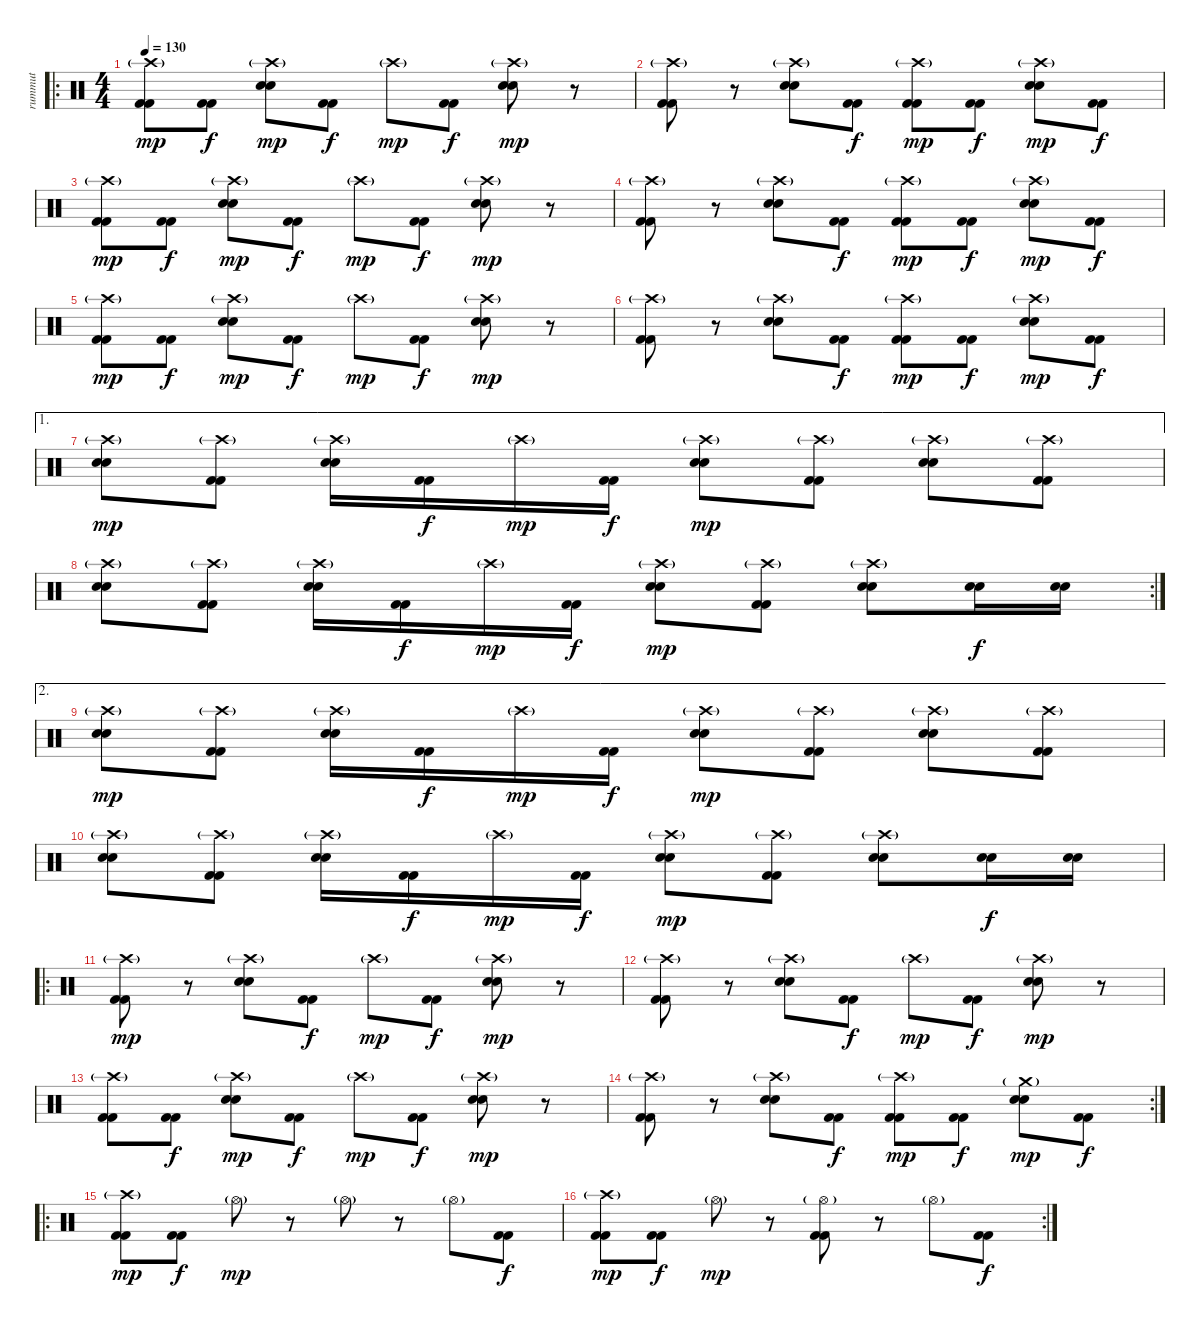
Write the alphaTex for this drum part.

\track ("rummut" "rummut") {instrument percussion}
\staff {score}
\articulation defaults
\ro
\ts (4 4)
\tempo 130
\clef neutral
\ks c
("Crash high (hit)"{g} "Kick (hit) 2" "Kick (hit) 2").8{dy mp} ("Kick (hit) 2" "Kick (hit) 2").8{dy f} ("Crash high (hit)"{g} "Electric Snare (hit)" "Electric Snare (hit)").8{dy mp} ("Kick (hit) 2" "Kick (hit) 2").8{dy f} "Crash high (hit)"{g}.8{dy mp} ("Kick (hit) 2" "Kick (hit) 2").8{dy f} ("Crash high (hit)"{g} "Electric Snare (hit)" "Electric Snare (hit)").8{dy mp} r.8 |
("Crash high (hit)"{g} "Kick (hit) 2" "Kick (hit) 2").8 r.8 ("Crash high (hit)"{g} "Electric Snare (hit)" "Electric Snare (hit)").8 ("Kick (hit) 2" "Kick (hit) 2").8{dy f} ("Crash high (hit)"{g} "Kick (hit) 2" "Kick (hit) 2").8{dy mp} ("Kick (hit) 2" "Kick (hit) 2").8{dy f} ("Crash high (hit)"{g} "Electric Snare (hit)" "Electric Snare (hit)").8{dy mp} ("Kick (hit) 2" "Kick (hit) 2").8{dy f} |
("Crash high (hit)"{g} "Kick (hit) 2" "Kick (hit) 2").8{dy mp} ("Kick (hit) 2" "Kick (hit) 2").8{dy f} ("Crash high (hit)"{g} "Electric Snare (hit)" "Electric Snare (hit)").8{dy mp} ("Kick (hit) 2" "Kick (hit) 2").8{dy f} "Crash high (hit)"{g}.8{dy mp} ("Kick (hit) 2" "Kick (hit) 2").8{dy f} ("Crash high (hit)"{g} "Electric Snare (hit)" "Electric Snare (hit)").8{dy mp} r.8 |
("Crash high (hit)"{g} "Kick (hit) 2" "Kick (hit) 2").8 r.8 ("Crash high (hit)"{g} "Electric Snare (hit)" "Electric Snare (hit)").8 ("Kick (hit) 2" "Kick (hit) 2").8{dy f} ("Crash high (hit)"{g} "Kick (hit) 2" "Kick (hit) 2").8{dy mp} ("Kick (hit) 2" "Kick (hit) 2").8{dy f} ("Crash high (hit)"{g} "Electric Snare (hit)" "Electric Snare (hit)").8{dy mp} ("Kick (hit) 2" "Kick (hit) 2").8{dy f} |
("Crash high (hit)"{g} "Kick (hit) 2" "Kick (hit) 2").8{dy mp} ("Kick (hit) 2" "Kick (hit) 2").8{dy f} ("Crash high (hit)"{g} "Electric Snare (hit)" "Electric Snare (hit)").8{dy mp} ("Kick (hit) 2" "Kick (hit) 2").8{dy f} "Crash high (hit)"{g}.8{dy mp} ("Kick (hit) 2" "Kick (hit) 2").8{dy f} ("Crash high (hit)"{g} "Electric Snare (hit)" "Electric Snare (hit)").8{dy mp} r.8 |
("Crash high (hit)"{g} "Kick (hit) 2" "Kick (hit) 2").8 r.8 ("Crash high (hit)"{g} "Electric Snare (hit)" "Electric Snare (hit)").8 ("Kick (hit) 2" "Kick (hit) 2").8{dy f} ("Crash high (hit)"{g} "Kick (hit) 2" "Kick (hit) 2").8{dy mp} ("Kick (hit) 2" "Kick (hit) 2").8{dy f} ("Crash high (hit)"{g} "Electric Snare (hit)" "Electric Snare (hit)").8{dy mp} ("Kick (hit) 2" "Kick (hit) 2").8{dy f} |
\ae 1
("Crash high (hit)"{g} "Electric Snare (hit)" "Electric Snare (hit)").8{dy mp} ("Crash high (hit)"{g} "Kick (hit) 2" "Kick (hit) 2").8 ("Crash high (hit)"{g} "Electric Snare (hit)" "Electric Snare (hit)").16 ("Kick (hit) 2" "Kick (hit) 2").16{dy f} "Crash high (hit)"{g}.16{dy mp} ("Kick (hit) 2" "Kick (hit) 2").16{dy f} ("Crash high (hit)"{g} "Electric Snare (hit)" "Electric Snare (hit)").8{dy mp} ("Crash high (hit)"{g} "Kick (hit) 2" "Kick (hit) 2").8 ("Crash high (hit)"{g} "Electric Snare (hit)" "Electric Snare (hit)").8 ("Crash high (hit)"{g} "Kick (hit) 2" "Kick (hit) 2").8 |
\rc 2
("Crash high (hit)"{g} "Electric Snare (hit)" "Electric Snare (hit)").8 ("Crash high (hit)"{g} "Kick (hit) 2" "Kick (hit) 2").8 ("Crash high (hit)"{g} "Electric Snare (hit)" "Electric Snare (hit)").16 ("Kick (hit) 2" "Kick (hit) 2").16{dy f} "Crash high (hit)"{g}.16{dy mp} ("Kick (hit) 2" "Kick (hit) 2").16{dy f} ("Crash high (hit)"{g} "Electric Snare (hit)" "Electric Snare (hit)").8{dy mp} ("Crash high (hit)"{g} "Kick (hit) 2" "Kick (hit) 2").8 ("Crash high (hit)"{g} "Electric Snare (hit)" "Electric Snare (hit)").8 ("Electric Snare (hit)" "Electric Snare (hit)").16{dy f} ("Electric Snare (hit)" "Electric Snare (hit)").16 |
\ae 2
("Crash high (hit)"{g} "Electric Snare (hit)" "Electric Snare (hit)").8{dy mp} ("Crash high (hit)"{g} "Kick (hit) 2" "Kick (hit) 2").8 ("Crash high (hit)"{g} "Electric Snare (hit)" "Electric Snare (hit)").16 ("Kick (hit) 2" "Kick (hit) 2").16{dy f} "Crash high (hit)"{g}.16{dy mp} ("Kick (hit) 2" "Kick (hit) 2").16{dy f} ("Crash high (hit)"{g} "Electric Snare (hit)" "Electric Snare (hit)").8{dy mp} ("Crash high (hit)"{g} "Kick (hit) 2" "Kick (hit) 2").8 ("Crash high (hit)"{g} "Electric Snare (hit)" "Electric Snare (hit)").8 ("Crash high (hit)"{g} "Kick (hit) 2" "Kick (hit) 2").8 |
("Crash high (hit)"{g} "Electric Snare (hit)" "Electric Snare (hit)").8 ("Crash high (hit)"{g} "Kick (hit) 2" "Kick (hit) 2").8 ("Crash high (hit)"{g} "Electric Snare (hit)" "Electric Snare (hit)").16 ("Kick (hit) 2" "Kick (hit) 2").16{dy f} "Crash high (hit)"{g}.16{dy mp} ("Kick (hit) 2" "Kick (hit) 2").16{dy f} ("Crash high (hit)"{g} "Electric Snare (hit)" "Electric Snare (hit)").8{dy mp} ("Crash high (hit)"{g} "Kick (hit) 2" "Kick (hit) 2").8 ("Crash high (hit)"{g} "Electric Snare (hit)" "Electric Snare (hit)").8 ("Electric Snare (hit)" "Electric Snare (hit)").16{dy f} ("Electric Snare (hit)" "Electric Snare (hit)").16 |
\ro
("Crash high (hit)"{g} "Kick (hit) 2" "Kick (hit) 2").8{dy mp} r.8 ("Crash high (hit)"{g} "Electric Snare (hit)" "Electric Snare (hit)").8 ("Kick (hit) 2" "Kick (hit) 2").8{dy f} "Crash high (hit)"{g}.8{dy mp} ("Kick (hit) 2" "Kick (hit) 2").8{dy f} ("Crash high (hit)"{g} "Electric Snare (hit)" "Electric Snare (hit)").8{dy mp} r.8 |
("Crash high (hit)"{g} "Kick (hit) 2" "Kick (hit) 2").8 r.8 ("Crash high (hit)"{g} "Electric Snare (hit)" "Electric Snare (hit)").8 ("Kick (hit) 2" "Kick (hit) 2").8{dy f} "Crash high (hit)"{g}.8{dy mp} ("Kick (hit) 2" "Kick (hit) 2").8{dy f} ("Crash high (hit)"{g} "Electric Snare (hit)" "Electric Snare (hit)").8{dy mp} r.8 |
("Crash high (hit)"{g} "Kick (hit) 2" "Kick (hit) 2").8 ("Kick (hit) 2" "Kick (hit) 2").8{dy f} ("Crash high (hit)"{g} "Electric Snare (hit)" "Electric Snare (hit)").8{dy mp} ("Kick (hit) 2" "Kick (hit) 2").8{dy f} "Crash high (hit)"{g}.8{dy mp} ("Kick (hit) 2" "Kick (hit) 2").8{dy f} ("Crash high (hit)"{g} "Electric Snare (hit)" "Electric Snare (hit)").8{dy mp} r.8 |
\rc 2
("Crash high (hit)"{g} "Kick (hit) 2" "Kick (hit) 2").8 r.8 ("Crash high (hit)"{g} "Electric Snare (hit)" "Electric Snare (hit)").8 ("Kick (hit) 2" "Kick (hit) 2").8{dy f} ("Crash high (hit)"{g} "Kick (hit) 2" "Kick (hit) 2").8{dy mp} ("Kick (hit) 2" "Kick (hit) 2").8{dy f} ("Crash medium (hit)"{g} "Electric Snare (hit)" "Electric Snare (hit)").8{dy mp} ("Kick (hit) 2" "Kick (hit) 2").8{dy f} |
\ro
("Crash high (hit)"{g} "Kick (hit) 2" "Kick (hit) 2").8{dy mp} ("Kick (hit) 2" "Kick (hit) 2").8{dy f} "Hi-Hat (open)"{g}.8{dy mp} r.8 "Hi-Hat (open)"{g}.8 r.8 "Hi-Hat (open)"{g}.8 ("Kick (hit) 2" "Kick (hit) 2").8{dy f} |
\rc 2
("Crash high (hit)"{g} "Kick (hit) 2" "Kick (hit) 2").8{dy mp} ("Kick (hit) 2" "Kick (hit) 2").8{dy f} "Hi-Hat (open)"{g}.8{dy mp} r.8 ("Hi-Hat (open)"{g} "Kick (hit) 2" "Kick (hit) 2").8 r.8 "Hi-Hat (open)"{g}.8 ("Kick (hit) 2" "Kick (hit) 2").8{dy f}
